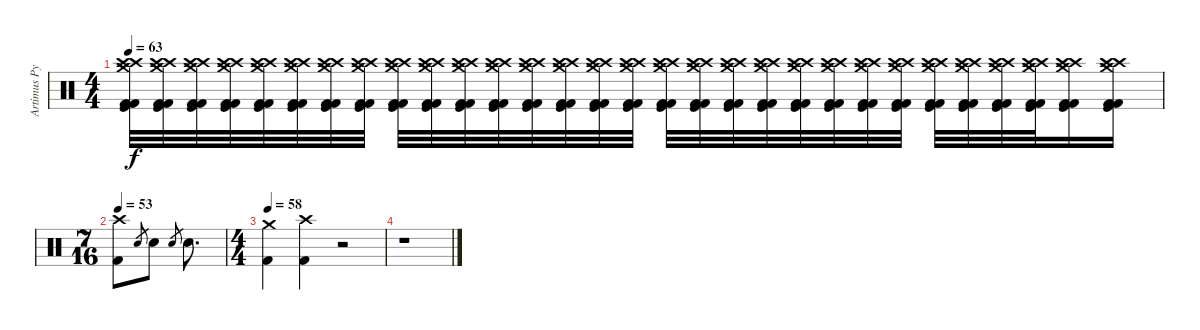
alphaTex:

\track ("Artimus Pyle (drums)" "Artimus Py") {instrument percussion}
\staff {score}
\articulation defaults
\ts (4 4)
\tempo 63
\clef neutral
\ks c
("Crash medium (hit)" "Crash high (hit)" "Crash high (hit)" "Kick (hit)" "Kick (hit) 2" "Kick (hit) 2").32{dy f} ("Crash medium (hit)" "Crash high (hit)" "Crash high (hit)" "Kick (hit)" "Kick (hit) 2" "Kick (hit) 2").32 ("Crash medium (hit)" "Crash high (hit)" "Crash high (hit)" "Kick (hit)" "Kick (hit) 2" "Kick (hit) 2").32 ("Crash medium (hit)" "Crash high (hit)" "Crash high (hit)" "Kick (hit)" "Kick (hit) 2" "Kick (hit) 2").32 ("Crash medium (hit)" "Crash high (hit)" "Crash high (hit)" "Kick (hit)" "Kick (hit) 2" "Kick (hit) 2").32 ("Crash medium (hit)" "Crash high (hit)" "Crash high (hit)" "Kick (hit)" "Kick (hit) 2" "Kick (hit) 2").32 ("Crash medium (hit)" "Crash high (hit)" "Crash high (hit)" "Kick (hit)" "Kick (hit) 2" "Kick (hit) 2").32 ("Crash medium (hit)" "Crash high (hit)" "Crash high (hit)" "Kick (hit)" "Kick (hit) 2" "Kick (hit) 2").32 ("Crash medium (hit)" "Crash high (hit)" "Crash high (hit)" "Kick (hit)" "Kick (hit) 2" "Kick (hit) 2").32 ("Crash medium (hit)" "Crash high (hit)" "Crash high (hit)" "Kick (hit)" "Kick (hit) 2" "Kick (hit) 2").32 ("Crash medium (hit)" "Crash high (hit)" "Crash high (hit)" "Kick (hit)" "Kick (hit) 2" "Kick (hit) 2").32 ("Crash medium (hit)" "Crash high (hit)" "Crash high (hit)" "Kick (hit)" "Kick (hit) 2" "Kick (hit) 2").32 ("Crash medium (hit)" "Crash high (hit)" "Crash high (hit)" "Kick (hit)" "Kick (hit) 2" "Kick (hit) 2").32 ("Crash medium (hit)" "Crash high (hit)" "Crash high (hit)" "Kick (hit)" "Kick (hit) 2" "Kick (hit) 2").32 ("Crash medium (hit)" "Crash high (hit)" "Crash high (hit)" "Kick (hit)" "Kick (hit) 2" "Kick (hit) 2").32 ("Crash medium (hit)" "Crash high (hit)" "Crash high (hit)" "Kick (hit)" "Kick (hit) 2" "Kick (hit) 2").32 ("Crash medium (hit)" "Crash high (hit)" "Crash high (hit)" "Kick (hit)" "Kick (hit) 2" "Kick (hit) 2").32 ("Crash medium (hit)" "Crash high (hit)" "Crash high (hit)" "Kick (hit)" "Kick (hit) 2" "Kick (hit) 2").32 ("Crash medium (hit)" "Crash high (hit)" "Crash high (hit)" "Kick (hit)" "Kick (hit) 2" "Kick (hit) 2").32 ("Crash medium (hit)" "Crash high (hit)" "Crash high (hit)" "Kick (hit)" "Kick (hit) 2" "Kick (hit) 2").32 ("Crash medium (hit)" "Crash high (hit)" "Crash high (hit)" "Kick (hit)" "Kick (hit) 2" "Kick (hit) 2").32 ("Crash medium (hit)" "Crash high (hit)" "Crash high (hit)" "Kick (hit)" "Kick (hit) 2" "Kick (hit) 2").32 ("Crash medium (hit)" "Crash high (hit)" "Crash high (hit)" "Kick (hit)" "Kick (hit) 2" "Kick (hit) 2").32 ("Crash medium (hit)" "Crash high (hit)" "Crash high (hit)" "Kick (hit)" "Kick (hit) 2" "Kick (hit) 2").32 ("Crash medium (hit)" "Crash high (hit)" "Crash high (hit)" "Kick (hit)" "Kick (hit) 2" "Kick (hit) 2").32 ("Crash medium (hit)" "Crash high (hit)" "Crash high (hit)" "Kick (hit)" "Kick (hit) 2" "Kick (hit) 2").32 ("Crash medium (hit)" "Crash high (hit)" "Crash high (hit)" "Kick (hit)" "Kick (hit) 2" "Kick (hit) 2").32 ("Crash medium (hit)" "Crash high (hit)" "Crash high (hit)" "Kick (hit)" "Kick (hit) 2" "Kick (hit) 2").32 ("Crash medium (hit)" "Crash high (hit)" "Crash high (hit)" "Kick (hit)" "Kick (hit) 2" "Kick (hit) 2").16 ("Crash medium (hit)" "Crash high (hit)" "Crash high (hit)" "Kick (hit)" "Kick (hit) 2" "Kick (hit) 2").16 |
\ts (7 16)
\tempo 53
("Crash high (hit)" "Kick (hit) 2").8 "Electric Snare (hit)".8{gr} "Electric Snare (hit)".8 "Electric Snare (hit)".8{gr} "Electric Snare (hit)".8{d} |
\ts (4 4)
\tempo 58
("Crash medium (hit)" "Kick (hit) 2").4 ("Crash high (hit)" "Kick (hit) 2").4 r.2 |
r.1
